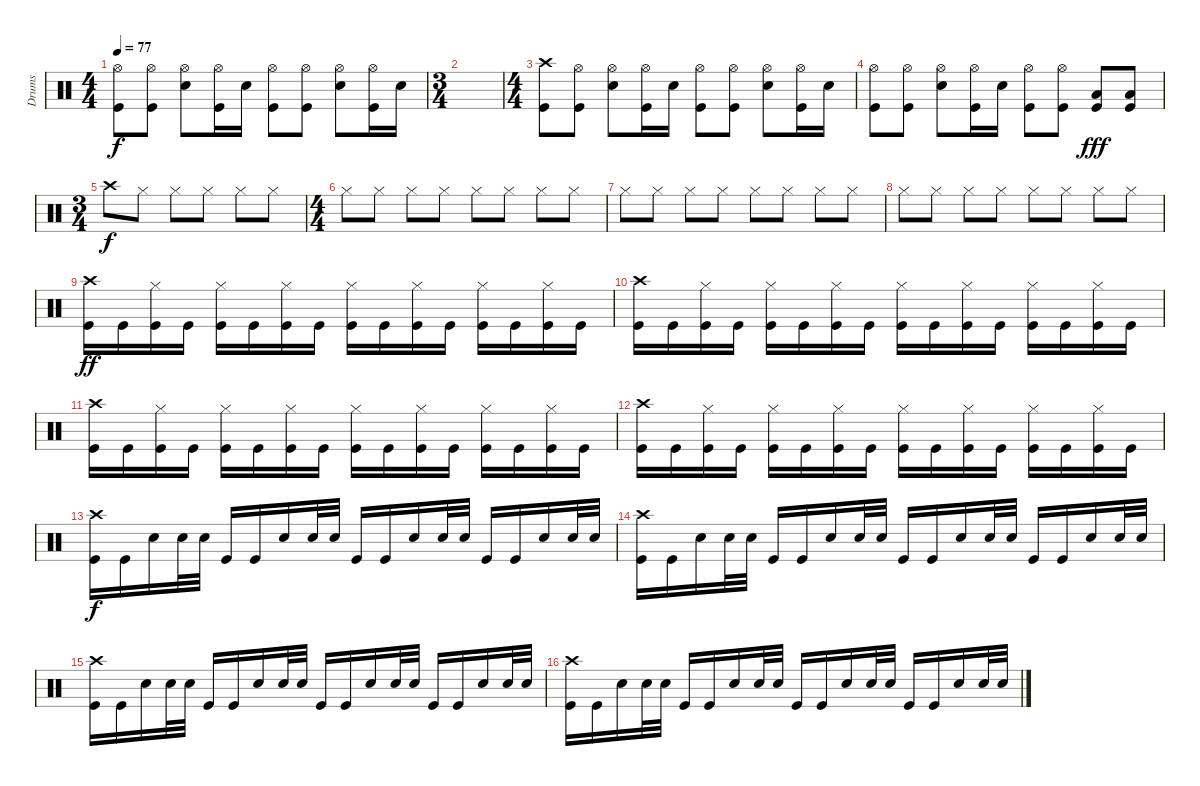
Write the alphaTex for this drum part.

\track ("Drums" "Drums") {instrument percussion}
\staff {score}
\articulation defaults
\ts (4 4)
\tempo 77
\clef neutral
\ks c
("Hi-Hat (open)" "Kick (hit)").8{dy f} ("Hi-Hat (open)" "Kick (hit)").8 ("Hi-Hat (open)" "Snare (hit) 2").8 ("Hi-Hat (open)" "Kick (hit)").16 "Snare (hit) 2".16 ("Hi-Hat (open)" "Kick (hit)").8 ("Hi-Hat (open)" "Kick (hit)").8 ("Hi-Hat (open)" "Snare (hit) 2").8 ("Hi-Hat (open)" "Kick (hit)").16 "Snare (hit) 2".16 |
\ts (3 4)
|
\ts (4 4)
("Crash high (hit)" "Kick (hit)").8 ("Hi-Hat (open)" "Kick (hit)").8 ("Hi-Hat (open)" "Snare (hit) 2").8 ("Hi-Hat (open)" "Kick (hit)").16 "Snare (hit) 2".16 ("Hi-Hat (open)" "Kick (hit)").8 ("Hi-Hat (open)" "Kick (hit)").8 ("Hi-Hat (open)" "Snare (hit) 2").8 ("Hi-Hat (open)" "Kick (hit)").16 "Snare (hit) 2".16 |
("Hi-Hat (open)" "Kick (hit)").8 ("Hi-Hat (open)" "Kick (hit)").8 ("Hi-Hat (open)" "Snare (hit) 2").8 ("Hi-Hat (open)" "Kick (hit)").16 "Snare (hit) 2".16 ("Hi-Hat (open)" "Kick (hit)").8 ("Hi-Hat (open)" "Kick (hit)").8 ("Low Tom (hit)" "Kick (hit)").8{dy fff} ("Low Tom (hit)" "Kick (hit)").8 |
\ts (3 4)
"Crash high (hit)".8{dy f} "Hi-Hat (closed)".8 "Hi-Hat (closed)".8 "Hi-Hat (closed)".8 "Hi-Hat (closed)".8 "Hi-Hat (closed)".8 |
\ts (4 4)
"Hi-Hat (closed)".8 "Hi-Hat (closed)".8 "Hi-Hat (closed)".8 "Hi-Hat (closed)".8 "Hi-Hat (closed)".8 "Hi-Hat (closed)".8 "Hi-Hat (closed)".8 "Hi-Hat (closed)".8 |
"Hi-Hat (closed)".8 "Hi-Hat (closed)".8 "Hi-Hat (closed)".8 "Hi-Hat (closed)".8 "Hi-Hat (closed)".8 "Hi-Hat (closed)".8 "Hi-Hat (closed)".8 "Hi-Hat (closed)".8 |
"Hi-Hat (closed)".8 "Hi-Hat (closed)".8 "Hi-Hat (closed)".8 "Hi-Hat (closed)".8 "Hi-Hat (closed)".8 "Hi-Hat (closed)".8 "Hi-Hat (closed)".8 "Hi-Hat (closed)".8 |
("Crash high (hit)" "Kick (hit)").16{dy ff} "Kick (hit)".16 ("Hi-Hat (closed)" "Kick (hit)").16 "Kick (hit)".16 ("Hi-Hat (closed)" "Kick (hit)").16 "Kick (hit)".16 ("Hi-Hat (closed)" "Kick (hit)").16 "Kick (hit)".16 ("Hi-Hat (closed)" "Kick (hit)").16 "Kick (hit)".16 ("Hi-Hat (closed)" "Kick (hit)").16 "Kick (hit)".16 ("Hi-Hat (closed)" "Kick (hit)").16 "Kick (hit)".16 ("Hi-Hat (closed)" "Kick (hit)").16 "Kick (hit)".16 |
("Crash high (hit)" "Kick (hit)").16 "Kick (hit)".16 ("Hi-Hat (closed)" "Kick (hit)").16 "Kick (hit)".16 ("Hi-Hat (closed)" "Kick (hit)").16 "Kick (hit)".16 ("Hi-Hat (closed)" "Kick (hit)").16 "Kick (hit)".16 ("Hi-Hat (closed)" "Kick (hit)").16 "Kick (hit)".16 ("Hi-Hat (closed)" "Kick (hit)").16 "Kick (hit)".16 ("Hi-Hat (closed)" "Kick (hit)").16 "Kick (hit)".16 ("Hi-Hat (closed)" "Kick (hit)").16 "Kick (hit)".16 |
("Crash high (hit)" "Kick (hit)").16 "Kick (hit)".16 ("Hi-Hat (closed)" "Kick (hit)").16 "Kick (hit)".16 ("Hi-Hat (closed)" "Kick (hit)").16 "Kick (hit)".16 ("Hi-Hat (closed)" "Kick (hit)").16 "Kick (hit)".16 ("Hi-Hat (closed)" "Kick (hit)").16 "Kick (hit)".16 ("Hi-Hat (closed)" "Kick (hit)").16 "Kick (hit)".16 ("Hi-Hat (closed)" "Kick (hit)").16 "Kick (hit)".16 ("Hi-Hat (closed)" "Kick (hit)").16 "Kick (hit)".16 |
("Crash high (hit)" "Kick (hit)").16 "Kick (hit)".16 ("Hi-Hat (closed)" "Kick (hit)").16 "Kick (hit)".16 ("Hi-Hat (closed)" "Kick (hit)").16 "Kick (hit)".16 ("Hi-Hat (closed)" "Kick (hit)").16 "Kick (hit)".16 ("Hi-Hat (closed)" "Kick (hit)").16 "Kick (hit)".16 ("Hi-Hat (closed)" "Kick (hit)").16 "Kick (hit)".16 ("Hi-Hat (closed)" "Kick (hit)").16 "Kick (hit)".16 ("Hi-Hat (closed)" "Kick (hit)").16 "Kick (hit)".16 |
("Crash high (hit)" "Kick (hit)").16{dy f} "Kick (hit)".16 "Snare (hit) 2".16 "Snare (hit) 2".32 "Snare (hit) 2".32 "Kick (hit)".16 "Kick (hit)".16 "Snare (hit) 2".16 "Snare (hit) 2".32 "Snare (hit) 2".32 "Kick (hit)".16 "Kick (hit)".16 "Snare (hit) 2".16 "Snare (hit) 2".32 "Snare (hit) 2".32 "Kick (hit)".16 "Kick (hit)".16 "Snare (hit) 2".16 "Snare (hit) 2".32 "Snare (hit) 2".32 |
("Crash high (hit)" "Kick (hit)").16 "Kick (hit)".16 "Snare (hit) 2".16 "Snare (hit) 2".32 "Snare (hit) 2".32 "Kick (hit)".16 "Kick (hit)".16 "Snare (hit) 2".16 "Snare (hit) 2".32 "Snare (hit) 2".32 "Kick (hit)".16 "Kick (hit)".16 "Snare (hit) 2".16 "Snare (hit) 2".32 "Snare (hit) 2".32 "Kick (hit)".16 "Kick (hit)".16 "Snare (hit) 2".16 "Snare (hit) 2".32 "Snare (hit) 2".32 |
("Crash high (hit)" "Kick (hit)").16 "Kick (hit)".16 "Snare (hit) 2".16 "Snare (hit) 2".32 "Snare (hit) 2".32 "Kick (hit)".16 "Kick (hit)".16 "Snare (hit) 2".16 "Snare (hit) 2".32 "Snare (hit) 2".32 "Kick (hit)".16 "Kick (hit)".16 "Snare (hit) 2".16 "Snare (hit) 2".32 "Snare (hit) 2".32 "Kick (hit)".16 "Kick (hit)".16 "Snare (hit) 2".16 "Snare (hit) 2".32 "Snare (hit) 2".32 |
("Crash high (hit)" "Kick (hit)").16 "Kick (hit)".16 "Snare (hit) 2".16 "Snare (hit) 2".32 "Snare (hit) 2".32 "Kick (hit)".16 "Kick (hit)".16 "Snare (hit) 2".16 "Snare (hit) 2".32 "Snare (hit) 2".32 "Kick (hit)".16 "Kick (hit)".16 "Snare (hit) 2".16 "Snare (hit) 2".32 "Snare (hit) 2".32 "Kick (hit)".16 "Kick (hit)".16 "Snare (hit) 2".16 "Snare (hit) 2".32 "Snare (hit) 2".32
